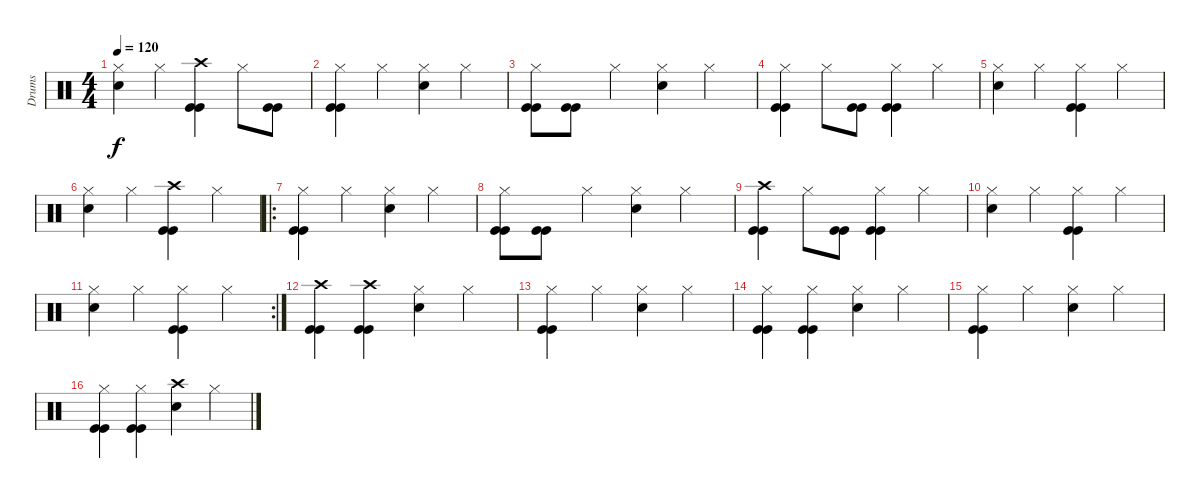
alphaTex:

\track ("Drums" "Drums") {instrument percussion}
\staff {score}
\articulation defaults
\ts (4 4)
\tempo 120
\clef neutral
\ks c
("Hi-Hat (closed)" "Snare (hit) 2").4{dy f} "Hi-Hat (closed)".4 ("Crash high (hit)" "Kick (hit)" "Kick (hit)").4 "Hi-Hat (closed)".8 ("Kick (hit)" "Kick (hit)").8 |
("Hi-Hat (closed)" "Kick (hit)" "Kick (hit)").4 "Hi-Hat (closed)".4 ("Hi-Hat (closed)" "Snare (hit) 2").4 "Hi-Hat (closed)".4 |
("Hi-Hat (closed)" "Kick (hit)" "Kick (hit)").8 ("Kick (hit)" "Kick (hit)").8 "Hi-Hat (closed)".4 ("Hi-Hat (closed)" "Snare (hit) 2").4 "Hi-Hat (closed)".4 |
("Hi-Hat (closed)" "Kick (hit)" "Kick (hit)").4 "Hi-Hat (closed)".8 ("Kick (hit)" "Kick (hit)").8 ("Hi-Hat (closed)" "Kick (hit)" "Kick (hit)").4 "Hi-Hat (closed)".4 |
("Hi-Hat (closed)" "Snare (hit) 2").4 "Hi-Hat (closed)".4 ("Hi-Hat (closed)" "Kick (hit)" "Kick (hit)").4 "Hi-Hat (closed)".4 |
("Hi-Hat (closed)" "Snare (hit) 2").4 "Hi-Hat (closed)".4 ("Crash high (hit)" "Kick (hit)" "Kick (hit)").4 "Hi-Hat (closed)".4 |
\ro
("Hi-Hat (closed)" "Kick (hit)" "Kick (hit)").4 "Hi-Hat (closed)".4 ("Hi-Hat (closed)" "Snare (hit) 2").4 "Hi-Hat (closed)".4 |
("Hi-Hat (closed)" "Kick (hit)" "Kick (hit)").8 ("Kick (hit)" "Kick (hit)").8 "Hi-Hat (closed)".4 ("Hi-Hat (closed)" "Snare (hit) 2").4 "Hi-Hat (closed)".4 |
("Crash high (hit)" "Kick (hit)" "Kick (hit)").4 "Hi-Hat (closed)".8 ("Kick (hit)" "Kick (hit)").8 ("Hi-Hat (closed)" "Kick (hit)" "Kick (hit)").4 "Hi-Hat (closed)".4 |
("Hi-Hat (closed)" "Snare (hit) 2").4 "Hi-Hat (closed)".4 ("Hi-Hat (closed)" "Kick (hit)" "Kick (hit)").4 "Hi-Hat (closed)".4 |
\rc 2
("Hi-Hat (closed)" "Snare (hit) 2").4 "Hi-Hat (closed)".4 ("Hi-Hat (closed)" "Kick (hit)" "Kick (hit)").4 "Hi-Hat (closed)".4 |
("Crash high (hit)" "Kick (hit)" "Kick (hit)").4 ("Crash high (hit)" "Kick (hit)" "Kick (hit)").4 ("Hi-Hat (closed)" "Snare (hit) 2").4 "Hi-Hat (closed)".4 |
("Hi-Hat (closed)" "Kick (hit)" "Kick (hit)").4 "Hi-Hat (closed)".4 ("Hi-Hat (closed)" "Snare (hit) 2").4 "Hi-Hat (closed)".4 |
("Hi-Hat (closed)" "Kick (hit)" "Kick (hit)").4 ("Hi-Hat (closed)" "Kick (hit)" "Kick (hit)").4 ("Hi-Hat (closed)" "Snare (hit) 2").4 "Hi-Hat (closed)".4 |
("Hi-Hat (closed)" "Kick (hit)" "Kick (hit)").4 "Hi-Hat (closed)".4 ("Hi-Hat (closed)" "Snare (hit) 2").4 "Hi-Hat (closed)".4 |
("Hi-Hat (closed)" "Kick (hit)" "Kick (hit)").4 ("Hi-Hat (closed)" "Kick (hit)" "Kick (hit)").4 ("Crash high (hit)" "Snare (hit) 2").4 "Hi-Hat (closed)".4
